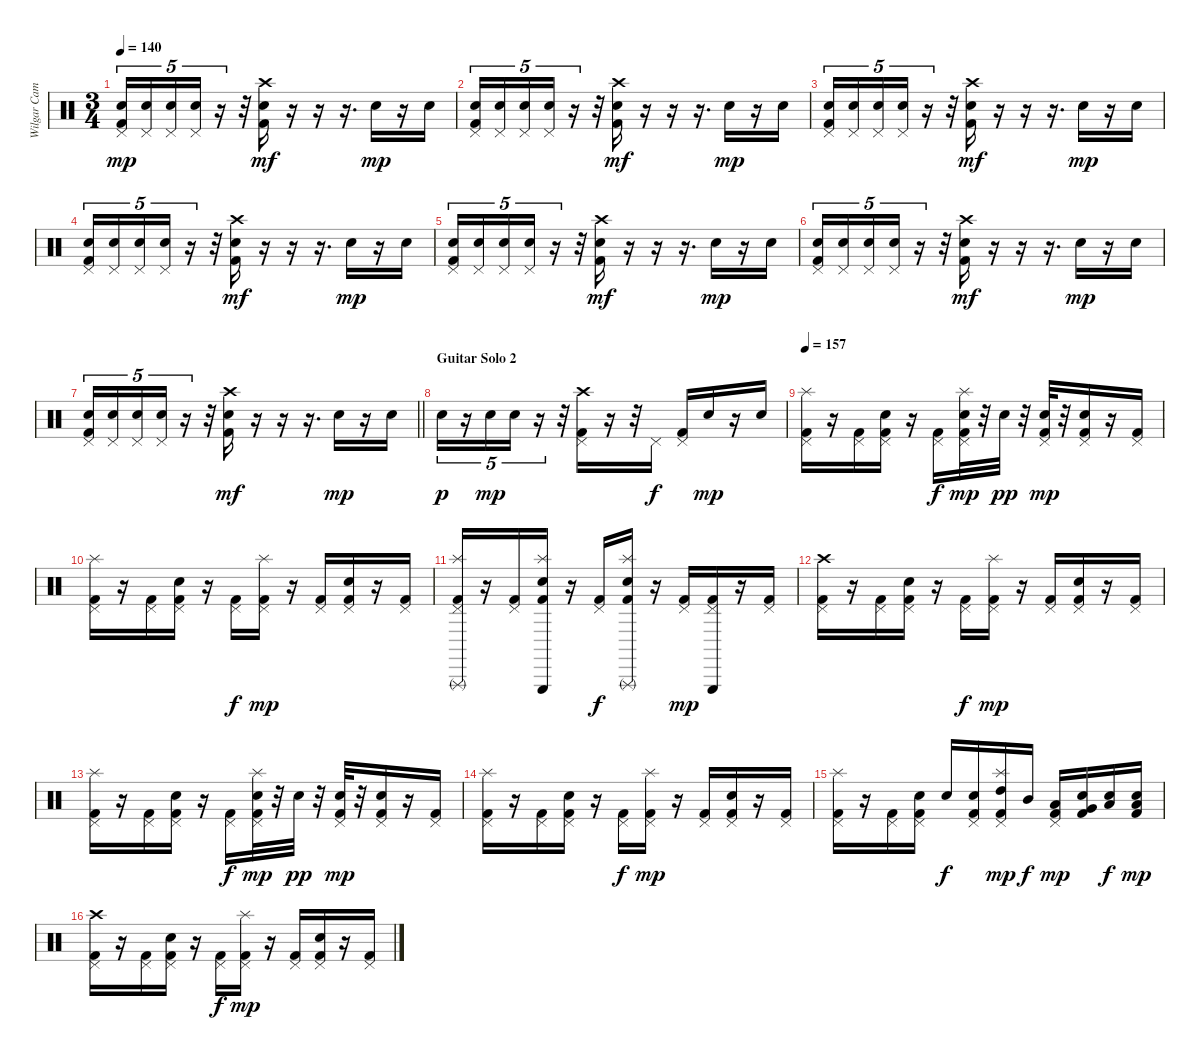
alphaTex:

\track ("Wilgar Campbell" "Wilgar Cam") {instrument percussion}
\staff {score}
\articulation defaults
\ts (3 4)
\tempo 140
\clef neutral
\ks c
("Snare (hit) 2" "Pedal Hi-Hat (hit)" "Kick (hit) 2").16{tu (5 4) dy mp} ("Snare (hit) 2" "Pedal Hi-Hat (hit)").16{tu (5 4)} ("Snare (hit) 2" "Pedal Hi-Hat (hit)").16{tu (5 4)} ("Snare (hit) 2" "Pedal Hi-Hat (hit)").16{tu (5 4)} r.16{tu (5 4)} r.32 ("Crash high (hit)" "Snare (hit) 2" "Kick (hit) 2").16{dy mf} r.16 r.16 r.16{d} "Electric Snare (hit)".16{dy mp} r.16 "Electric Snare (hit)".16 |
("Snare (hit) 2" "Pedal Hi-Hat (hit)" "Kick (hit) 2").16{tu (5 4)} ("Snare (hit) 2" "Pedal Hi-Hat (hit)").16{tu (5 4)} ("Snare (hit) 2" "Pedal Hi-Hat (hit)").16{tu (5 4)} ("Snare (hit) 2" "Pedal Hi-Hat (hit)").16{tu (5 4)} r.16{tu (5 4)} r.32 ("Crash high (hit)" "Snare (hit) 2" "Kick (hit) 2").16{dy mf} r.16 r.16 r.16{d} "Electric Snare (hit)".16{dy mp} r.16 "Electric Snare (hit)".16 |
("Snare (hit) 2" "Pedal Hi-Hat (hit)" "Kick (hit) 2").16{tu (5 4)} ("Snare (hit) 2" "Pedal Hi-Hat (hit)").16{tu (5 4)} ("Snare (hit) 2" "Pedal Hi-Hat (hit)").16{tu (5 4)} ("Snare (hit) 2" "Pedal Hi-Hat (hit)").16{tu (5 4)} r.16{tu (5 4)} r.32 ("Crash high (hit)" "Snare (hit) 2" "Kick (hit) 2").16{dy mf} r.16 r.16 r.16{d} "Electric Snare (hit)".16{dy mp} r.16 "Electric Snare (hit)".16 |
("Snare (hit) 2" "Pedal Hi-Hat (hit)" "Kick (hit) 2").16{tu (5 4)} ("Snare (hit) 2" "Pedal Hi-Hat (hit)").16{tu (5 4)} ("Snare (hit) 2" "Pedal Hi-Hat (hit)").16{tu (5 4)} ("Snare (hit) 2" "Pedal Hi-Hat (hit)").16{tu (5 4)} r.16{tu (5 4)} r.32 ("Crash high (hit)" "Snare (hit) 2" "Kick (hit) 2").16{dy mf} r.16 r.16 r.16{d} "Electric Snare (hit)".16{dy mp} r.16 "Electric Snare (hit)".16 |
("Snare (hit) 2" "Pedal Hi-Hat (hit)" "Kick (hit) 2").16{tu (5 4)} ("Snare (hit) 2" "Pedal Hi-Hat (hit)").16{tu (5 4)} ("Snare (hit) 2" "Pedal Hi-Hat (hit)").16{tu (5 4)} ("Snare (hit) 2" "Pedal Hi-Hat (hit)").16{tu (5 4)} r.16{tu (5 4)} r.32 ("Crash high (hit)" "Snare (hit) 2" "Kick (hit) 2").16{dy mf} r.16 r.16 r.16{d} "Electric Snare (hit)".16{dy mp} r.16 "Electric Snare (hit)".16 |
("Snare (hit) 2" "Pedal Hi-Hat (hit)" "Kick (hit) 2").16{tu (5 4)} ("Snare (hit) 2" "Pedal Hi-Hat (hit)").16{tu (5 4)} ("Snare (hit) 2" "Pedal Hi-Hat (hit)").16{tu (5 4)} ("Snare (hit) 2" "Pedal Hi-Hat (hit)").16{tu (5 4)} r.16{tu (5 4)} r.32 ("Crash high (hit)" "Snare (hit) 2" "Kick (hit) 2").16{dy mf} r.16 r.16 r.16{d} "Electric Snare (hit)".16{dy mp} r.16 "Electric Snare (hit)".16 |
\barLineRight lightlight
("Snare (hit) 2" "Pedal Hi-Hat (hit)" "Kick (hit) 2").16{tu (5 4)} ("Snare (hit) 2" "Pedal Hi-Hat (hit)").16{tu (5 4)} ("Snare (hit) 2" "Pedal Hi-Hat (hit)").16{tu (5 4)} ("Snare (hit) 2" "Pedal Hi-Hat (hit)").16{tu (5 4)} r.16{tu (5 4)} r.32 ("Crash high (hit)" "Snare (hit) 2" "Kick (hit) 2").16{dy mf} r.16 r.16 r.16{d} "Electric Snare (hit)".16{dy mp} r.16 "Electric Snare (hit)".16 |
\section ("" "Guitar Solo 2")
"Electric Snare (hit)".16{tu (5 4) dy p} r.16{tu (5 4)} "Electric Snare (hit)".16{tu (5 4) dy mp} "Electric Snare (hit)".16{tu (5 4)} r.16{tu (5 4)} r.32 ("Crash high (hit)" "Pedal Hi-Hat (hit)" "Kick (hit) 2").16 r.16 r.32 "Pedal Hi-Hat (hit)".16{dy f} ("Pedal Hi-Hat (hit)" "Kick (hit) 2").16 "Electric Snare (hit)".16{dy mp} r.16 "Electric Snare (hit)".16 |
\tempo 157
("Splash (hit)" "Pedal Hi-Hat (hit)" "Kick (hit) 2").16 r.16 ("Pedal Hi-Hat (hit)" "Kick (hit) 2").16 ("Snare (hit) 2" "Pedal Hi-Hat (hit)" "Kick (hit) 2").16 r.16 ("Pedal Hi-Hat (hit)" "Kick (hit) 2").16{dy f} ("Splash (hit)" "Pedal Hi-Hat (hit)" "Electric Snare (hit)" "Kick (hit) 2").32{dy mp} r.32 "Electric Snare (hit)".32{dy pp} r.32 ("Pedal Hi-Hat (hit)" "Electric Snare (hit)" "Kick (hit) 2").32{dy mp} r.32 ("Snare (hit) 2" "Pedal Hi-Hat (hit)" "Kick (hit) 2").16 r.16 ("Pedal Hi-Hat (hit)" "Kick (hit) 2").16 |
("Splash (hit)" "Pedal Hi-Hat (hit)" "Kick (hit) 2").16 r.16 ("Pedal Hi-Hat (hit)" "Kick (hit) 2").16 ("Snare (hit) 2" "Pedal Hi-Hat (hit)" "Kick (hit) 2").16 r.16 ("Pedal Hi-Hat (hit)" "Kick (hit) 2").16{dy f} ("Splash (hit)" "Pedal Hi-Hat (hit)" "Kick (hit) 2").16{dy mp} r.16 ("Pedal Hi-Hat (hit)" "Kick (hit) 2").16 ("Snare (hit) 2" "Pedal Hi-Hat (hit)" "Kick (hit) 2").16 r.16 ("Pedal Hi-Hat (hit)" "Kick (hit) 2").16 |
("Splash (hit)" "Triangle (rnute)" "Pedal Hi-Hat (hit)" "Kick (hit) 2").16 r.16 ("Pedal Hi-Hat (hit)" "Kick (hit) 2").16 ("Snare (hit) 2" "Splash (hit)" "Triangle (hit)" "Kick (hit) 2").16 r.16 ("Pedal Hi-Hat (hit)" "Kick (hit) 2").16{dy f} ("Splash (hit)" "Snare (hit) 2" "Triangle (rnute)" "Kick (hit) 2").16 r.16 ("Pedal Hi-Hat (hit)" "Kick (hit) 2").16{dy mp} ("Pedal Hi-Hat (hit)" "Triangle (hit)" "Kick (hit) 2").16 r.16 ("Pedal Hi-Hat (hit)" "Kick (hit) 2").16 |
("Crash high (hit)" "Pedal Hi-Hat (hit)" "Kick (hit) 2").16 r.16 ("Pedal Hi-Hat (hit)" "Kick (hit) 2").16 ("Snare (hit) 2" "Pedal Hi-Hat (hit)" "Kick (hit) 2").16 r.16 ("Pedal Hi-Hat (hit)" "Kick (hit) 2").16{dy f} ("Splash (hit)" "Pedal Hi-Hat (hit)" "Kick (hit) 2").16{dy mp} r.16 ("Pedal Hi-Hat (hit)" "Kick (hit) 2").16 ("Snare (hit) 2" "Pedal Hi-Hat (hit)" "Kick (hit) 2").16 r.16 ("Pedal Hi-Hat (hit)" "Kick (hit) 2").16 |
("Splash (hit)" "Pedal Hi-Hat (hit)" "Kick (hit) 2").16 r.16 ("Pedal Hi-Hat (hit)" "Kick (hit) 2").16 ("Snare (hit) 2" "Pedal Hi-Hat (hit)" "Kick (hit) 2").16 r.16 ("Pedal Hi-Hat (hit)" "Kick (hit) 2").16{dy f} ("Splash (hit)" "Pedal Hi-Hat (hit)" "Electric Snare (hit)" "Kick (hit) 2").32{dy mp} r.32 "Electric Snare (hit)".32{dy pp} r.32 ("Pedal Hi-Hat (hit)" "Electric Snare (hit)" "Kick (hit) 2").32{dy mp} r.32 ("Snare (hit) 2" "Pedal Hi-Hat (hit)" "Kick (hit) 2").16 r.16 ("Pedal Hi-Hat (hit)" "Kick (hit) 2").16 |
("Splash (hit)" "Pedal Hi-Hat (hit)" "Kick (hit) 2").16 r.16 ("Pedal Hi-Hat (hit)" "Kick (hit) 2").16 ("Snare (hit) 2" "Pedal Hi-Hat (hit)" "Kick (hit) 2").16 r.16 ("Pedal Hi-Hat (hit)" "Kick (hit) 2").16{dy f} ("Splash (hit)" "Pedal Hi-Hat (hit)" "Kick (hit) 2").16{dy mp} r.16 ("Pedal Hi-Hat (hit)" "Kick (hit) 2").16 ("Snare (hit) 2" "Pedal Hi-Hat (hit)" "Kick (hit) 2").16 r.16 ("Pedal Hi-Hat (hit)" "Kick (hit) 2").16 |
("Splash (hit)" "Pedal Hi-Hat (hit)" "Kick (hit) 2").16 r.16 ("Pedal Hi-Hat (hit)" "Kick (hit) 2").16 ("Electric Snare (hit)" "Pedal Hi-Hat (hit)" "Kick (hit) 2").16 "Electric Snare (hit)".16{dy f} ("Snare (hit) 2" "Pedal Hi-Hat (hit)" "Kick (hit) 2").16 ("Splash (hit)" "High Tom (hit)" "Pedal Hi-Hat (hit)" "Kick (hit) 2").16{dy mp} "Mid Tom (hit)".16{dy f} ("Low Tom (hit)" "Pedal Hi-Hat (hit)" "Kick (hit) 2").16{dy mp} ("Very Low Tom (hit)" "Snare (hit) 2" "Kick (hit) 2").16 ("Low Tom (hit)" "Snare (hit) 2").16{dy f} ("Low Floor Tom (hit)" "Snare (hit) 2" "Kick (hit) 2").16{dy mp} |
("Crash high (hit)" "Pedal Hi-Hat (hit)" "Kick (hit) 2").16 r.16 ("Pedal Hi-Hat (hit)" "Kick (hit) 2").16 ("Snare (hit) 2" "Pedal Hi-Hat (hit)" "Kick (hit) 2").16 r.16 ("Pedal Hi-Hat (hit)" "Kick (hit) 2").16{dy f} ("Splash (hit)" "Pedal Hi-Hat (hit)" "Kick (hit) 2").16{dy mp} r.16 ("Pedal Hi-Hat (hit)" "Kick (hit) 2").16 ("Snare (hit) 2" "Pedal Hi-Hat (hit)" "Kick (hit) 2").16 r.16 ("Pedal Hi-Hat (hit)" "Kick (hit) 2").16
